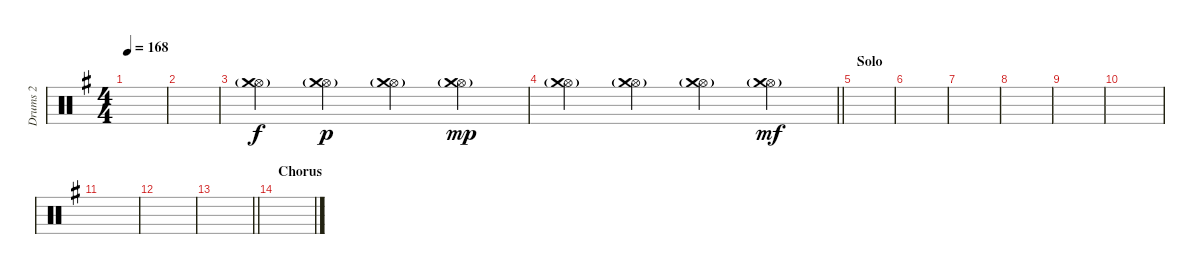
\track ("Drums 2" "Drums 2") {instrument percussion}
\staff {score}
\articulation defaults
\ts (4 4)
\tempo 168
\clef neutral
\ks g
|
|
("Hi-Hat (open)" "Crash medium (hit)"{g}).4 ("Hi-Hat (open)" "Crash medium (hit)"{g}).4{dy p} ("Hi-Hat (open)" "Crash medium (hit)"{g}).4 ("Hi-Hat (open)" "Crash medium (hit)"{g}).4{dy mp} |
\barLineRight lightlight
("Hi-Hat (open)" "Crash medium (hit)"{g}).4 ("Hi-Hat (open)" "Crash medium (hit)"{g}).4 ("Hi-Hat (open)" "Crash medium (hit)"{g}).4 ("Hi-Hat (open)" "Crash medium (hit)"{g}).4{dy mf} |
\section ("" "Solo")
|
|
|
|
|
|
|
|
\barLineRight lightlight
|
\section ("" "Chorus")
